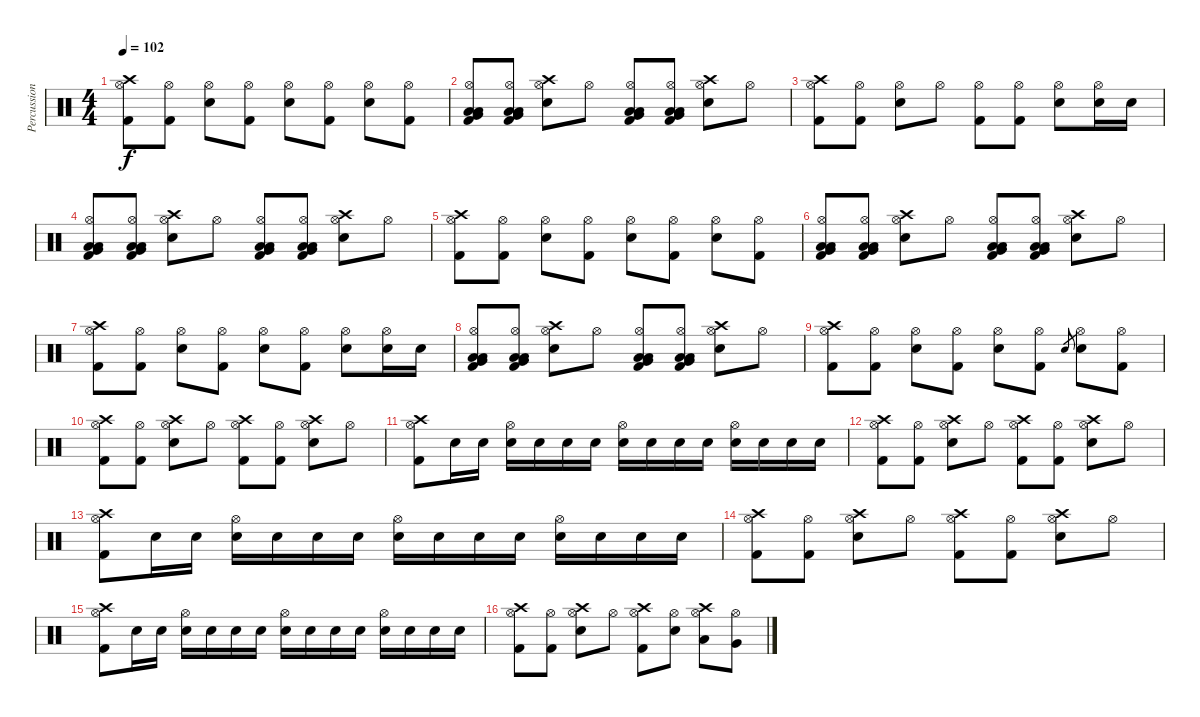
\track ("Percussion" "Percussion") {instrument percussion}
\staff {score}
\articulation defaults
\ts (4 4)
\tempo 102
\clef neutral
\ks c
("Kick (hit) 2" "Hi-Hat (open)" "Crash high (hit)").8{dy f} ("Kick (hit) 2" "Hi-Hat (open)").8 ("Snare (hit) 2" "Hi-Hat (open)").8 ("Kick (hit) 2" "Hi-Hat (open)").8 ("Snare (hit) 2" "Hi-Hat (open)").8 ("Kick (hit) 2" "Hi-Hat (open)").8 ("Snare (hit) 2" "Hi-Hat (open)").8 ("Kick (hit) 2" "Hi-Hat (open)").8 |
("Kick (hit) 2" "Hi-Hat (open)" "Low Tom (hit)" "Very Low Tom (hit)" "Low Floor Tom (hit)").8 ("Kick (hit) 2" "Hi-Hat (open)" "Low Tom (hit)" "Very Low Tom (hit)" "Low Floor Tom (hit)").8 ("Snare (hit) 2" "Hi-Hat (open)" "Crash high (hit)").8 "Hi-Hat (open)".8 ("Kick (hit) 2" "Hi-Hat (open)" "Low Tom (hit)" "Very Low Tom (hit)" "Low Floor Tom (hit)").8 ("Kick (hit) 2" "Hi-Hat (open)" "Low Tom (hit)" "Very Low Tom (hit)" "Low Floor Tom (hit)").8 ("Snare (hit) 2" "Hi-Hat (open)" "Crash high (hit)").8 "Hi-Hat (open)".8 |
("Kick (hit) 2" "Hi-Hat (open)" "Crash high (hit)").8 ("Kick (hit) 2" "Hi-Hat (open)").8 ("Snare (hit) 2" "Hi-Hat (open)").8 "Hi-Hat (open)".8 ("Kick (hit) 2" "Hi-Hat (open)").8 ("Kick (hit) 2" "Hi-Hat (open)").8 ("Snare (hit) 2" "Hi-Hat (open)").8 ("Snare (hit) 2" "Hi-Hat (open)").16 "Snare (hit) 2".16 |
("Kick (hit) 2" "Hi-Hat (open)" "Low Tom (hit)" "Very Low Tom (hit)" "Low Floor Tom (hit)").8 ("Kick (hit) 2" "Hi-Hat (open)" "Low Tom (hit)" "Very Low Tom (hit)" "Low Floor Tom (hit)").8 ("Snare (hit) 2" "Hi-Hat (open)" "Crash high (hit)").8 "Hi-Hat (open)".8 ("Kick (hit) 2" "Hi-Hat (open)" "Low Tom (hit)" "Very Low Tom (hit)" "Low Floor Tom (hit)").8 ("Kick (hit) 2" "Hi-Hat (open)" "Low Tom (hit)" "Very Low Tom (hit)" "Low Floor Tom (hit)").8 ("Snare (hit) 2" "Hi-Hat (open)" "Crash high (hit)").8 "Hi-Hat (open)".8 |
("Kick (hit) 2" "Hi-Hat (open)" "Crash high (hit)").8 ("Kick (hit) 2" "Hi-Hat (open)").8 ("Snare (hit) 2" "Hi-Hat (open)").8 ("Kick (hit) 2" "Hi-Hat (open)").8 ("Snare (hit) 2" "Hi-Hat (open)").8 ("Kick (hit) 2" "Hi-Hat (open)").8 ("Snare (hit) 2" "Hi-Hat (open)").8 ("Kick (hit) 2" "Hi-Hat (open)").8 |
("Kick (hit) 2" "Hi-Hat (open)" "Low Tom (hit)" "Very Low Tom (hit)" "Low Floor Tom (hit)").8 ("Kick (hit) 2" "Hi-Hat (open)" "Low Tom (hit)" "Very Low Tom (hit)" "Low Floor Tom (hit)").8 ("Snare (hit) 2" "Hi-Hat (open)" "Crash high (hit)").8 "Hi-Hat (open)".8 ("Kick (hit) 2" "Hi-Hat (open)" "Low Tom (hit)" "Very Low Tom (hit)" "Low Floor Tom (hit)").8 ("Kick (hit) 2" "Hi-Hat (open)" "Low Tom (hit)" "Very Low Tom (hit)" "Low Floor Tom (hit)").8 ("Snare (hit) 2" "Hi-Hat (open)" "Crash high (hit)").8 "Hi-Hat (open)".8 |
("Kick (hit) 2" "Hi-Hat (open)" "Crash high (hit)").8 ("Kick (hit) 2" "Hi-Hat (open)").8 ("Snare (hit) 2" "Hi-Hat (open)").8 ("Kick (hit) 2" "Hi-Hat (open)").8 ("Snare (hit) 2" "Hi-Hat (open)").8 ("Kick (hit) 2" "Hi-Hat (open)").8 ("Snare (hit) 2" "Hi-Hat (open)").8 ("Snare (hit) 2" "Hi-Hat (open)").16 "Snare (hit) 2".16 |
("Kick (hit) 2" "Hi-Hat (open)" "Low Tom (hit)" "Very Low Tom (hit)" "Low Floor Tom (hit)").8 ("Kick (hit) 2" "Hi-Hat (open)" "Low Tom (hit)" "Very Low Tom (hit)" "Low Floor Tom (hit)").8 ("Snare (hit) 2" "Hi-Hat (open)" "Crash high (hit)").8 "Hi-Hat (open)".8 ("Kick (hit) 2" "Hi-Hat (open)" "Low Tom (hit)" "Very Low Tom (hit)" "Low Floor Tom (hit)").8 ("Kick (hit) 2" "Hi-Hat (open)" "Low Tom (hit)" "Very Low Tom (hit)" "Low Floor Tom (hit)").8 ("Snare (hit) 2" "Hi-Hat (open)" "Crash high (hit)").8 "Hi-Hat (open)".8 |
("Kick (hit) 2" "Hi-Hat (open)" "Crash high (hit)").8 ("Kick (hit) 2" "Hi-Hat (open)").8 ("Snare (hit) 2" "Hi-Hat (open)").8 ("Kick (hit) 2" "Hi-Hat (open)").8 ("Snare (hit) 2" "Hi-Hat (open)").8 ("Kick (hit) 2" "Hi-Hat (open)").8 "Snare (hit) 2".8{gr} ("Snare (hit) 2" "Hi-Hat (open)").8 ("Kick (hit) 2" "Hi-Hat (open)").8 |
("Kick (hit) 2" "Hi-Hat (open)" "Crash high (hit)").8 ("Kick (hit) 2" "Hi-Hat (open)").8 ("Snare (hit) 2" "Hi-Hat (open)" "Crash high (hit)").8 "Hi-Hat (open)".8 ("Kick (hit) 2" "Hi-Hat (open)" "Crash high (hit)").8 ("Kick (hit) 2" "Hi-Hat (open)").8 ("Snare (hit) 2" "Hi-Hat (open)" "Crash high (hit)").8 "Hi-Hat (open)".8 |
("Kick (hit) 2" "Hi-Hat (open)" "Crash high (hit)").8 "Snare (hit) 2".16 "Snare (hit) 2".16 ("Snare (hit) 2" "Hi-Hat (open)").16 "Snare (hit) 2".16 "Snare (hit) 2".16 "Snare (hit) 2".16 ("Snare (hit) 2" "Hi-Hat (open)").16 "Snare (hit) 2".16 "Snare (hit) 2".16 "Snare (hit) 2".16 ("Snare (hit) 2" "Hi-Hat (open)").16 "Snare (hit) 2".16 "Snare (hit) 2".16 "Snare (hit) 2".16 |
("Kick (hit) 2" "Hi-Hat (open)" "Crash high (hit)").8 ("Kick (hit) 2" "Hi-Hat (open)").8 ("Snare (hit) 2" "Hi-Hat (open)" "Crash high (hit)").8 "Hi-Hat (open)".8 ("Kick (hit) 2" "Hi-Hat (open)" "Crash high (hit)").8 ("Kick (hit) 2" "Hi-Hat (open)").8 ("Snare (hit) 2" "Hi-Hat (open)" "Crash high (hit)").8 "Hi-Hat (open)".8 |
("Kick (hit) 2" "Hi-Hat (open)" "Crash high (hit)").8 "Snare (hit) 2".16 "Snare (hit) 2".16 ("Snare (hit) 2" "Hi-Hat (open)").16 "Snare (hit) 2".16 "Snare (hit) 2".16 "Snare (hit) 2".16 ("Snare (hit) 2" "Hi-Hat (open)").16 "Snare (hit) 2".16 "Snare (hit) 2".16 "Snare (hit) 2".16 ("Snare (hit) 2" "Hi-Hat (open)").16 "Snare (hit) 2".16 "Snare (hit) 2".16 "Snare (hit) 2".16 |
("Kick (hit) 2" "Hi-Hat (open)" "Crash high (hit)").8 ("Kick (hit) 2" "Hi-Hat (open)").8 ("Snare (hit) 2" "Hi-Hat (open)" "Crash high (hit)").8 "Hi-Hat (open)".8 ("Kick (hit) 2" "Hi-Hat (open)" "Crash high (hit)").8 ("Kick (hit) 2" "Hi-Hat (open)").8 ("Snare (hit) 2" "Hi-Hat (open)" "Crash high (hit)").8 "Hi-Hat (open)".8 |
("Kick (hit) 2" "Hi-Hat (open)" "Crash high (hit)").8 "Snare (hit) 2".16 "Snare (hit) 2".16 ("Snare (hit) 2" "Hi-Hat (open)").16 "Snare (hit) 2".16 "Snare (hit) 2".16 "Snare (hit) 2".16 ("Snare (hit) 2" "Hi-Hat (open)").16 "Snare (hit) 2".16 "Snare (hit) 2".16 "Snare (hit) 2".16 ("Snare (hit) 2" "Hi-Hat (open)").16 "Snare (hit) 2".16 "Snare (hit) 2".16 "Snare (hit) 2".16 |
("Kick (hit) 2" "Hi-Hat (open)" "Crash high (hit)").8 ("Kick (hit) 2" "Hi-Hat (open)").8 ("Snare (hit) 2" "Hi-Hat (open)" "Crash high (hit)").8 "Hi-Hat (open)".8 ("Kick (hit) 2" "Hi-Hat (open)" "Crash high (hit)").8 ("Snare (hit) 2" "Hi-Hat (open)").8 ("Low Tom (hit)" "Hi-Hat (open)" "Crash high (hit)").8 ("Very Low Tom (hit)" "Hi-Hat (open)").8
